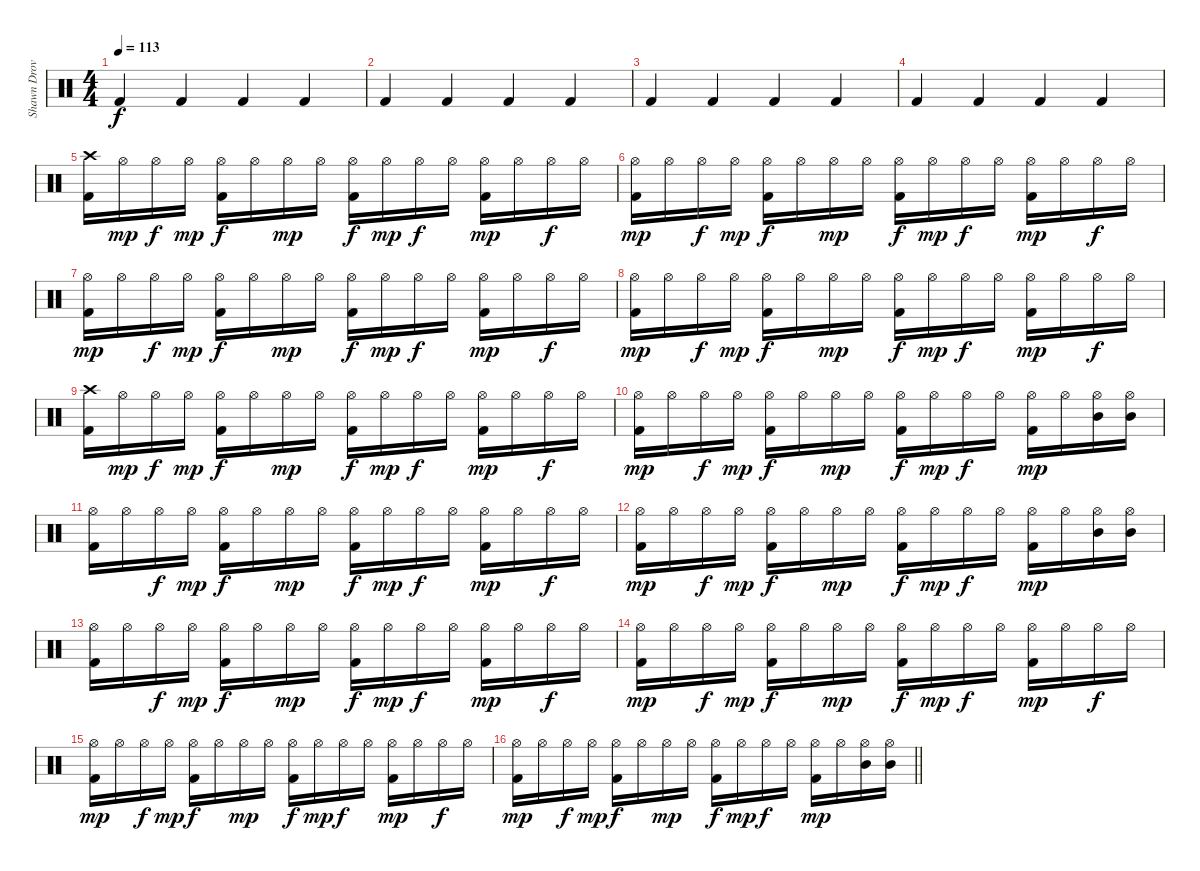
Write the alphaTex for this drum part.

\track ("Shawn Drover" "Shawn Drov") {instrument percussion}
\staff {score}
\articulation defaults
\ts (4 4)
\tempo 113
\clef neutral
\ks c "Kick (hit) 2".4{dy f volume 16} "Kick (hit) 2".4 "Kick (hit) 2".4 "Kick (hit) 2".4
|
"Kick (hit) 2".4 "Kick (hit) 2".4 "Kick (hit) 2".4 "Kick (hit) 2".4 |
"Kick (hit) 2".4 "Kick (hit) 2".4 "Kick (hit) 2".4 "Kick (hit) 2".4 |
"Kick (hit) 2".4 "Kick (hit) 2".4 "Kick (hit) 2".4 "Kick (hit) 2".4 |
("Crash high (hit)" "Kick (hit) 2").16{volume 12} "Hi-Hat (open)".16{dy mp} "Hi-Hat (open)".16{dy f} "Hi-Hat (open)".16{dy mp} ("Hi-Hat (open)" "Kick (hit) 2").16{dy f} "Hi-Hat (open)".16 "Hi-Hat (open)".16{dy mp} "Hi-Hat (open)".16 ("Hi-Hat (open)" "Kick (hit) 2").16{dy f} "Hi-Hat (open)".16{dy mp} "Hi-Hat (open)".16{dy f} "Hi-Hat (open)".16 ("Hi-Hat (open)" "Kick (hit) 2").16{dy mp} "Hi-Hat (open)".16 "Hi-Hat (open)".16{dy f} "Hi-Hat (open)".16 |
("Hi-Hat (open)" "Kick (hit) 2").16{dy mp} "Hi-Hat (open)".16 "Hi-Hat (open)".16{dy f} "Hi-Hat (open)".16{dy mp} ("Hi-Hat (open)" "Kick (hit) 2").16{dy f} "Hi-Hat (open)".16 "Hi-Hat (open)".16{dy mp} "Hi-Hat (open)".16 ("Hi-Hat (open)" "Kick (hit) 2").16{dy f} "Hi-Hat (open)".16{dy mp} "Hi-Hat (open)".16{dy f} "Hi-Hat (open)".16 ("Hi-Hat (open)" "Kick (hit) 2").16{dy mp} "Hi-Hat (open)".16 "Hi-Hat (open)".16{dy f} "Hi-Hat (open)".16 |
("Hi-Hat (open)" "Kick (hit) 2").16{dy mp} "Hi-Hat (open)".16 "Hi-Hat (open)".16{dy f} "Hi-Hat (open)".16{dy mp} ("Hi-Hat (open)" "Kick (hit) 2").16{dy f} "Hi-Hat (open)".16 "Hi-Hat (open)".16{dy mp} "Hi-Hat (open)".16 ("Hi-Hat (open)" "Kick (hit) 2").16{dy f} "Hi-Hat (open)".16{dy mp} "Hi-Hat (open)".16{dy f} "Hi-Hat (open)".16 ("Hi-Hat (open)" "Kick (hit) 2").16{dy mp} "Hi-Hat (open)".16 "Hi-Hat (open)".16{dy f} "Hi-Hat (open)".16 |
("Hi-Hat (open)" "Kick (hit) 2").16{dy mp} "Hi-Hat (open)".16 "Hi-Hat (open)".16{dy f} "Hi-Hat (open)".16{dy mp} ("Hi-Hat (open)" "Kick (hit) 2").16{dy f} "Hi-Hat (open)".16 "Hi-Hat (open)".16{dy mp} "Hi-Hat (open)".16 ("Hi-Hat (open)" "Kick (hit) 2").16{dy f} "Hi-Hat (open)".16{dy mp} "Hi-Hat (open)".16{dy f} "Hi-Hat (open)".16 ("Hi-Hat (open)" "Kick (hit) 2").16{dy mp} "Hi-Hat (open)".16 "Hi-Hat (open)".16{dy f} "Hi-Hat (open)".16 |
("Crash high (hit)" "Kick (hit) 2").16 "Hi-Hat (open)".16{dy mp} "Hi-Hat (open)".16{dy f} "Hi-Hat (open)".16{dy mp} ("Hi-Hat (open)" "Kick (hit) 2").16{dy f} "Hi-Hat (open)".16 "Hi-Hat (open)".16{dy mp} "Hi-Hat (open)".16 ("Hi-Hat (open)" "Kick (hit) 2").16{dy f} "Hi-Hat (open)".16{dy mp} "Hi-Hat (open)".16{dy f} "Hi-Hat (open)".16 ("Hi-Hat (open)" "Kick (hit) 2").16{dy mp} "Hi-Hat (open)".16 "Hi-Hat (open)".16{dy f} "Hi-Hat (open)".16 |
("Hi-Hat (open)" "Kick (hit) 2").16{dy mp} "Hi-Hat (open)".16 "Hi-Hat (open)".16{dy f} "Hi-Hat (open)".16{dy mp} ("Hi-Hat (open)" "Kick (hit) 2").16{dy f} "Hi-Hat (open)".16 "Hi-Hat (open)".16{dy mp} "Hi-Hat (open)".16 ("Hi-Hat (open)" "Kick (hit) 2").16{dy f} "Hi-Hat (open)".16{dy mp} "Hi-Hat (open)".16{dy f} "Hi-Hat (open)".16 ("Hi-Hat (open)" "Kick (hit) 2").16{dy mp} "Hi-Hat (open)".16 ("Hi-Hat (open)" "Mid Tom (hit)").16 ("Hi-Hat (open)" "Mid Tom (hit)").16 |
("Hi-Hat (open)" "Kick (hit) 2").16 "Hi-Hat (open)".16 "Hi-Hat (open)".16{dy f} "Hi-Hat (open)".16{dy mp} ("Hi-Hat (open)" "Kick (hit) 2").16{dy f} "Hi-Hat (open)".16 "Hi-Hat (open)".16{dy mp} "Hi-Hat (open)".16 ("Hi-Hat (open)" "Kick (hit) 2").16{dy f} "Hi-Hat (open)".16{dy mp} "Hi-Hat (open)".16{dy f} "Hi-Hat (open)".16 ("Hi-Hat (open)" "Kick (hit) 2").16{dy mp} "Hi-Hat (open)".16 "Hi-Hat (open)".16{dy f} "Hi-Hat (open)".16 |
("Hi-Hat (open)" "Kick (hit) 2").16{dy mp} "Hi-Hat (open)".16 "Hi-Hat (open)".16{dy f} "Hi-Hat (open)".16{dy mp} ("Hi-Hat (open)" "Kick (hit) 2").16{dy f} "Hi-Hat (open)".16 "Hi-Hat (open)".16{dy mp} "Hi-Hat (open)".16 ("Hi-Hat (open)" "Kick (hit) 2").16{dy f} "Hi-Hat (open)".16{dy mp} "Hi-Hat (open)".16{dy f} "Hi-Hat (open)".16 ("Hi-Hat (open)" "Kick (hit) 2").16{dy mp} "Hi-Hat (open)".16 ("Hi-Hat (open)" "Mid Tom (hit)").16 ("Hi-Hat (open)" "Mid Tom (hit)").16 |
("Hi-Hat (open)" "Kick (hit) 2").16 "Hi-Hat (open)".16 "Hi-Hat (open)".16{dy f} "Hi-Hat (open)".16{dy mp} ("Hi-Hat (open)" "Kick (hit) 2").16{dy f} "Hi-Hat (open)".16 "Hi-Hat (open)".16{dy mp} "Hi-Hat (open)".16 ("Hi-Hat (open)" "Kick (hit) 2").16{dy f} "Hi-Hat (open)".16{dy mp} "Hi-Hat (open)".16{dy f} "Hi-Hat (open)".16 ("Hi-Hat (open)" "Kick (hit) 2").16{dy mp} "Hi-Hat (open)".16 "Hi-Hat (open)".16{dy f} "Hi-Hat (open)".16 |
("Hi-Hat (open)" "Kick (hit) 2").16{dy mp} "Hi-Hat (open)".16 "Hi-Hat (open)".16{dy f} "Hi-Hat (open)".16{dy mp} ("Hi-Hat (open)" "Kick (hit) 2").16{dy f} "Hi-Hat (open)".16 "Hi-Hat (open)".16{dy mp} "Hi-Hat (open)".16 ("Hi-Hat (open)" "Kick (hit) 2").16{dy f} "Hi-Hat (open)".16{dy mp} "Hi-Hat (open)".16{dy f} "Hi-Hat (open)".16 ("Hi-Hat (open)" "Kick (hit) 2").16{dy mp} "Hi-Hat (open)".16 "Hi-Hat (open)".16{dy f} "Hi-Hat (open)".16 |
("Hi-Hat (open)" "Kick (hit) 2").16{dy mp} "Hi-Hat (open)".16 "Hi-Hat (open)".16{dy f} "Hi-Hat (open)".16{dy mp} ("Hi-Hat (open)" "Kick (hit) 2").16{dy f} "Hi-Hat (open)".16 "Hi-Hat (open)".16{dy mp} "Hi-Hat (open)".16 ("Hi-Hat (open)" "Kick (hit) 2").16{dy f} "Hi-Hat (open)".16{dy mp} "Hi-Hat (open)".16{dy f} "Hi-Hat (open)".16 ("Hi-Hat (open)" "Kick (hit) 2").16{dy mp} "Hi-Hat (open)".16 "Hi-Hat (open)".16{dy f} "Hi-Hat (open)".16 |
\barLineRight lightlight
("Hi-Hat (open)" "Kick (hit) 2").16{dy mp} "Hi-Hat (open)".16 "Hi-Hat (open)".16{dy f} "Hi-Hat (open)".16{dy mp} ("Hi-Hat (open)" "Kick (hit) 2").16{dy f} "Hi-Hat (open)".16 "Hi-Hat (open)".16{dy mp} "Hi-Hat (open)".16 ("Hi-Hat (open)" "Kick (hit) 2").16{dy f} "Hi-Hat (open)".16{dy mp} "Hi-Hat (open)".16{dy f} "Hi-Hat (open)".16 ("Hi-Hat (open)" "Kick (hit) 2").16{dy mp} "Hi-Hat (open)".16 ("Hi-Hat (open)" "Mid Tom (hit)").16 ("Hi-Hat (open)" "Mid Tom (hit)").16
